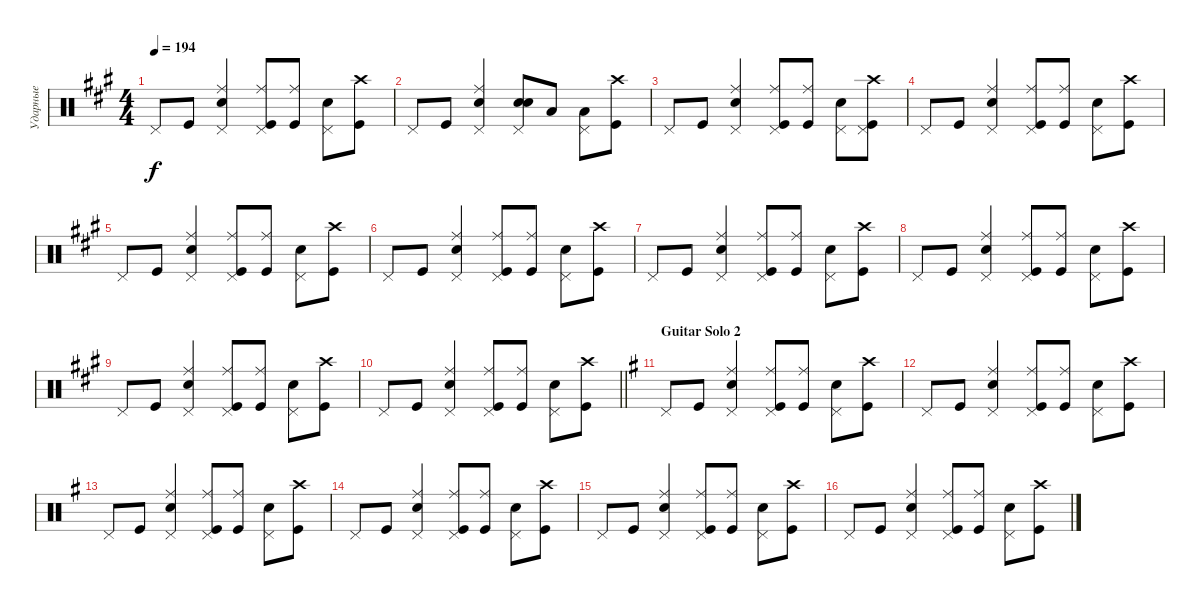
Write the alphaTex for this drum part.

\track ("Ударные" "Ударные") {instrument percussion}
\staff {score}
\articulation defaults
\ts (4 4)
\tempo 194
\clef neutral
\ks f#minor "Pedal Hi-Hat (hit)".8{dy f} "Kick (hit)".8
("Snare (hit) 2" "Ride (middle)" "Pedal Hi-Hat (hit)").4 ("Kick (hit)" "Ride (middle)" "Pedal Hi-Hat (hit)").8 ("Ride (middle)" "Kick (hit)").8 ("Snare (hit) 2" "Pedal Hi-Hat (hit)").8 ("Kick (hit)" "Crash high (hit)").8 |
"Pedal Hi-Hat (hit)".8 "Kick (hit)".8 ("Snare (hit) 2" "Ride (middle)" "Pedal Hi-Hat (hit)").4 ("Snare (hit) 2" "Snare (hit) 2" "Pedal Hi-Hat (hit)").8{bd 240} "Low Tom (hit)".8 ("Low Tom (hit)" "Pedal Hi-Hat (hit)").8 ("Kick (hit)" "Crash high (hit)").8 |
"Pedal Hi-Hat (hit)".8 "Kick (hit)".8 ("Snare (hit) 2" "Ride (middle)" "Pedal Hi-Hat (hit)").4 ("Kick (hit)" "Ride (middle)" "Pedal Hi-Hat (hit)").8 ("Ride (middle)" "Kick (hit)").8 ("Snare (hit) 2" "Pedal Hi-Hat (hit)").8 ("Kick (hit)" "Crash high (hit)" "Pedal Hi-Hat (hit)").8 |
"Pedal Hi-Hat (hit)".8 "Kick (hit)".8 ("Snare (hit) 2" "Ride (middle)" "Pedal Hi-Hat (hit)").4 ("Kick (hit)" "Ride (middle)" "Pedal Hi-Hat (hit)").8 ("Ride (middle)" "Kick (hit)").8 ("Snare (hit) 2" "Pedal Hi-Hat (hit)").8 ("Kick (hit)" "Crash high (hit)").8 |
"Pedal Hi-Hat (hit)".8 "Kick (hit)".8 ("Snare (hit) 2" "Ride (middle)" "Pedal Hi-Hat (hit)").4 ("Kick (hit)" "Ride (middle)" "Pedal Hi-Hat (hit)").8 ("Ride (middle)" "Kick (hit)").8 ("Snare (hit) 2" "Pedal Hi-Hat (hit)").8 ("Kick (hit)" "Crash high (hit)").8 |
"Pedal Hi-Hat (hit)".8 "Kick (hit)".8 ("Snare (hit) 2" "Ride (middle)" "Pedal Hi-Hat (hit)").4 ("Kick (hit)" "Ride (middle)" "Pedal Hi-Hat (hit)").8 ("Ride (middle)" "Kick (hit)").8 ("Snare (hit) 2" "Pedal Hi-Hat (hit)").8 ("Kick (hit)" "Crash high (hit)").8 |
"Pedal Hi-Hat (hit)".8 "Kick (hit)".8 ("Snare (hit) 2" "Ride (middle)" "Pedal Hi-Hat (hit)").4 ("Kick (hit)" "Ride (middle)" "Pedal Hi-Hat (hit)").8 ("Ride (middle)" "Kick (hit)").8 ("Snare (hit) 2" "Pedal Hi-Hat (hit)").8 ("Kick (hit)" "Crash high (hit)").8 |
"Pedal Hi-Hat (hit)".8 "Kick (hit)".8 ("Snare (hit) 2" "Ride (middle)" "Pedal Hi-Hat (hit)").4 ("Kick (hit)" "Ride (middle)" "Pedal Hi-Hat (hit)").8 ("Ride (middle)" "Kick (hit)").8 ("Snare (hit) 2" "Pedal Hi-Hat (hit)").8 ("Kick (hit)" "Crash high (hit)").8 |
"Pedal Hi-Hat (hit)".8 "Kick (hit)".8 ("Snare (hit) 2" "Ride (middle)" "Pedal Hi-Hat (hit)").4 ("Kick (hit)" "Ride (middle)" "Pedal Hi-Hat (hit)").8 ("Ride (middle)" "Kick (hit)").8 ("Snare (hit) 2" "Pedal Hi-Hat (hit)").8 ("Kick (hit)" "Crash high (hit)").8 |
\barLineRight lightlight "Pedal Hi-Hat (hit)".8 "Kick (hit)".8
("Snare (hit) 2" "Ride (middle)" "Pedal Hi-Hat (hit)").4 ("Kick (hit)" "Ride (middle)" "Pedal Hi-Hat (hit)").8 ("Ride (middle)" "Kick (hit)").8 ("Snare (hit) 2" "Pedal Hi-Hat (hit)").8 ("Kick (hit)" "Crash high (hit)").8 |
\section ("" "Guitar Solo 2")
\ks eminor "Pedal Hi-Hat (hit)".8 "Kick (hit)".8
("Snare (hit) 2" "Ride (middle)" "Pedal Hi-Hat (hit)").4 ("Kick (hit)" "Ride (middle)" "Pedal Hi-Hat (hit)").8 ("Ride (middle)" "Kick (hit)").8 ("Snare (hit) 2" "Pedal Hi-Hat (hit)").8 ("Kick (hit)" "Crash high (hit)").8 |
"Pedal Hi-Hat (hit)".8 "Kick (hit)".8 ("Snare (hit) 2" "Ride (middle)" "Pedal Hi-Hat (hit)").4 ("Kick (hit)" "Ride (middle)" "Pedal Hi-Hat (hit)").8 ("Ride (middle)" "Kick (hit)").8 ("Snare (hit) 2" "Pedal Hi-Hat (hit)").8 ("Kick (hit)" "Crash high (hit)").8 |
"Pedal Hi-Hat (hit)".8 "Kick (hit)".8 ("Snare (hit) 2" "Ride (middle)" "Pedal Hi-Hat (hit)").4 ("Kick (hit)" "Ride (middle)" "Pedal Hi-Hat (hit)").8 ("Ride (middle)" "Kick (hit)").8 ("Snare (hit) 2" "Pedal Hi-Hat (hit)").8 ("Kick (hit)" "Crash high (hit)").8 |
"Pedal Hi-Hat (hit)".8 "Kick (hit)".8 ("Snare (hit) 2" "Ride (middle)" "Pedal Hi-Hat (hit)").4 ("Kick (hit)" "Ride (middle)" "Pedal Hi-Hat (hit)").8 ("Ride (middle)" "Kick (hit)").8 ("Snare (hit) 2" "Pedal Hi-Hat (hit)").8 ("Kick (hit)" "Crash high (hit)").8 |
"Pedal Hi-Hat (hit)".8 "Kick (hit)".8 ("Snare (hit) 2" "Ride (middle)" "Pedal Hi-Hat (hit)").4 ("Kick (hit)" "Ride (middle)" "Pedal Hi-Hat (hit)").8 ("Ride (middle)" "Kick (hit)").8 ("Snare (hit) 2" "Pedal Hi-Hat (hit)").8 ("Kick (hit)" "Crash high (hit)").8 |
"Pedal Hi-Hat (hit)".8 "Kick (hit)".8 ("Snare (hit) 2" "Ride (middle)" "Pedal Hi-Hat (hit)").4 ("Kick (hit)" "Ride (middle)" "Pedal Hi-Hat (hit)").8 ("Ride (middle)" "Kick (hit)").8 ("Snare (hit) 2" "Pedal Hi-Hat (hit)").8 ("Kick (hit)" "Crash high (hit)").8
